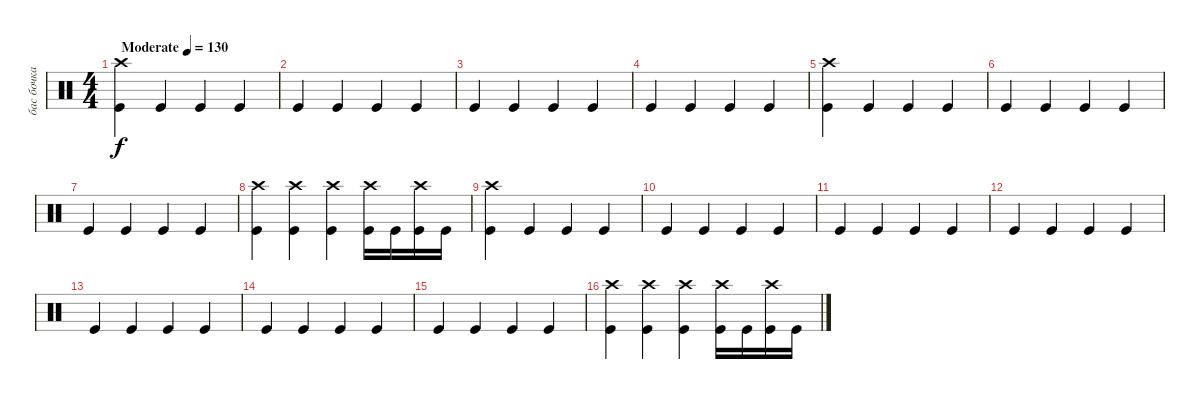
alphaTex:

\track ("бас бочка" "бас бочка") {instrument percussion}
\staff {score}
\articulation defaults
\ts (4 4)
\tempo (130 "Moderate")
\clef neutral
\ks c
("Crash high (hit)" "Kick (hit)").4{dy f} "Kick (hit)".4 "Kick (hit)".4 "Kick (hit)".4 |
"Kick (hit)".4 "Kick (hit)".4 "Kick (hit)".4 "Kick (hit)".4 |
"Kick (hit)".4 "Kick (hit)".4 "Kick (hit)".4 "Kick (hit)".4 |
"Kick (hit)".4 "Kick (hit)".4 "Kick (hit)".4 "Kick (hit)".4 |
("Crash high (hit)" "Kick (hit)").4 "Kick (hit)".4 "Kick (hit)".4 "Kick (hit)".4 |
"Kick (hit)".4 "Kick (hit)".4 "Kick (hit)".4 "Kick (hit)".4 |
"Kick (hit)".4 "Kick (hit)".4 "Kick (hit)".4 "Kick (hit)".4 |
("Crash high (hit)" "Kick (hit)").4 ("Crash high (hit)" "Kick (hit)").4 ("Crash high (hit)" "Kick (hit)").4 ("Crash high (hit)" "Kick (hit)").16 "Kick (hit)".16 ("Crash high (hit)" "Kick (hit)").16 "Kick (hit)".16 |
("Crash high (hit)" "Kick (hit)").4 "Kick (hit)".4 "Kick (hit)".4 "Kick (hit)".4 |
"Kick (hit)".4 "Kick (hit)".4 "Kick (hit)".4 "Kick (hit)".4 |
"Kick (hit)".4 "Kick (hit)".4 "Kick (hit)".4 "Kick (hit)".4 |
"Kick (hit)".4 "Kick (hit)".4 "Kick (hit)".4 "Kick (hit)".4 |
"Kick (hit)".4 "Kick (hit)".4 "Kick (hit)".4 "Kick (hit)".4 |
"Kick (hit)".4 "Kick (hit)".4 "Kick (hit)".4 "Kick (hit)".4 |
"Kick (hit)".4 "Kick (hit)".4 "Kick (hit)".4 "Kick (hit)".4 |
("Crash high (hit)" "Kick (hit)").4 ("Crash high (hit)" "Kick (hit)").4 ("Crash high (hit)" "Kick (hit)").4 ("Crash high (hit)" "Kick (hit)").16 "Kick (hit)".16 ("Crash high (hit)" "Kick (hit)").16 "Kick (hit)".16
